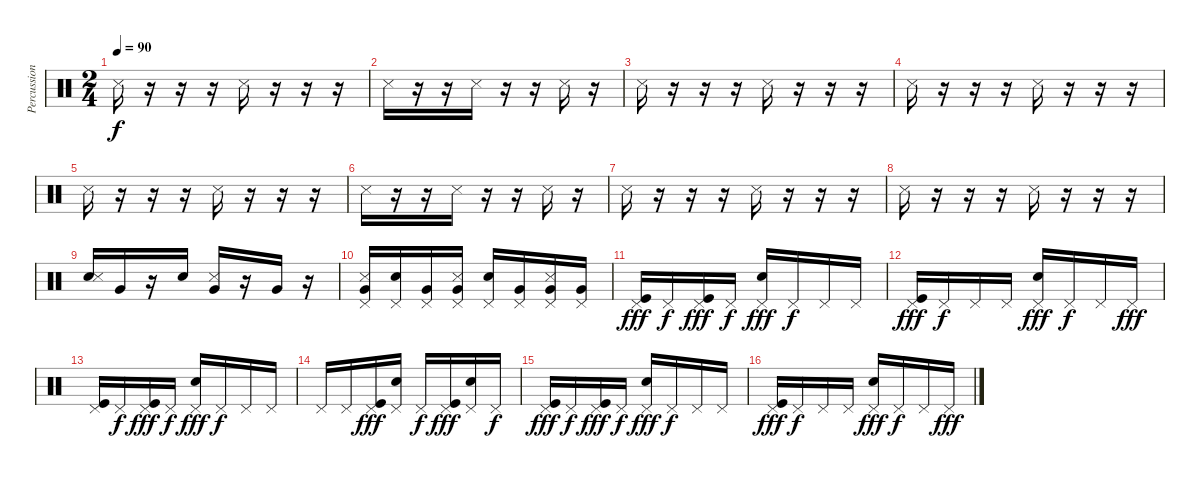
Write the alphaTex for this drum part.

\track ("Percussion" "Percussion") {instrument percussion}
\staff {score}
\articulation defaults
\ts (2 4)
\tempo 90
\clef neutral
\ks c "Snare (side stick) 3".16{dy f}
r.16 r.16 r.16 "Snare (side stick) 3".16 r.16 r.16 r.16 |
"Snare (side stick) 3".16 r.16 r.16 "Snare (side stick) 3".16 r.16 r.16 "Snare (side stick) 3".16 r.16 |
"Snare (side stick) 3".16 r.16 r.16 r.16 "Snare (side stick) 3".16 r.16 r.16 r.16 |
"Snare (side stick) 3".16 r.16 r.16 r.16 "Snare (side stick) 3".16 r.16 r.16 r.16 |
"Snare (side stick) 3".16 r.16 r.16 r.16 "Snare (side stick) 3".16 r.16 r.16 r.16 |
"Snare (side stick) 3".16 r.16 r.16 "Snare (side stick) 3".16 r.16 r.16 "Snare (side stick) 3".16 r.16 |
"Snare (side stick) 3".16 r.16 r.16 r.16 "Snare (side stick) 3".16 r.16 r.16 r.16 |
"Snare (side stick) 3".16 r.16 r.16 r.16 "Snare (side stick) 3".16 r.16 r.16 r.16 |
("Electric Snare (hit)" "Snare (side stick) 3").16 "Very Low Tom (hit)".16 r.16 "Electric Snare (hit)".16 ("Very Low Tom (hit)" "Snare (side stick) 3").16 r.16 "Very Low Tom (hit)".16 r.16 |
("Very Low Tom (hit)" "Snare (side stick) 3" "Pedal Hi-Hat (hit)").16 ("Electric Snare (hit)" "Pedal Hi-Hat (hit)").16 ("Very Low Tom (hit)" "Pedal Hi-Hat (hit)").16 ("Very Low Tom (hit)" "Snare (side stick) 3" "Pedal Hi-Hat (hit)").16 ("Electric Snare (hit)" "Pedal Hi-Hat (hit)").16 ("Very Low Tom (hit)" "Pedal Hi-Hat (hit)").16 ("Very Low Tom (hit)" "Snare (side stick) 3" "Pedal Hi-Hat (hit)").16 ("Very Low Tom (hit)" "Pedal Hi-Hat (hit)").16 |
("Kick (hit)" "Pedal Hi-Hat (hit)").16{dy fff} "Pedal Hi-Hat (hit)".16{dy f} ("Kick (hit)" "Pedal Hi-Hat (hit)").16{dy fff} "Pedal Hi-Hat (hit)".16{dy f} ("Electric Snare (hit)" "Pedal Hi-Hat (hit)").16{dy fff} "Pedal Hi-Hat (hit)".16{dy f} "Pedal Hi-Hat (hit)".16 "Pedal Hi-Hat (hit)".16 |
("Kick (hit)" "Pedal Hi-Hat (hit)").16{dy fff} "Pedal Hi-Hat (hit)".16{dy f} "Pedal Hi-Hat (hit)".16 "Pedal Hi-Hat (hit)".16 ("Electric Snare (hit)" "Pedal Hi-Hat (hit)").16{dy fff} "Pedal Hi-Hat (hit)".16{dy f} "Pedal Hi-Hat (hit)".16 "Pedal Hi-Hat (hit)".16{dy fff} |
("Kick (hit)" "Pedal Hi-Hat (hit)").16 "Pedal Hi-Hat (hit)".16{dy f} ("Kick (hit)" "Pedal Hi-Hat (hit)").16{dy fff} "Pedal Hi-Hat (hit)".16{dy f} ("Electric Snare (hit)" "Pedal Hi-Hat (hit)").16{dy fff} "Pedal Hi-Hat (hit)".16{dy f} "Pedal Hi-Hat (hit)".16 "Pedal Hi-Hat (hit)".16 |
"Pedal Hi-Hat (hit)".16 "Pedal Hi-Hat (hit)".16 ("Kick (hit)" "Pedal Hi-Hat (hit)").16{dy fff} ("Electric Snare (hit)" "Pedal Hi-Hat (hit)").16 "Pedal Hi-Hat (hit)".16{dy f} ("Kick (hit)" "Pedal Hi-Hat (hit)").16{dy fff} ("Electric Snare (hit)" "Pedal Hi-Hat (hit)").16 "Pedal Hi-Hat (hit)".16{dy f} |
("Kick (hit)" "Pedal Hi-Hat (hit)").16{dy fff} "Pedal Hi-Hat (hit)".16{dy f} ("Kick (hit)" "Pedal Hi-Hat (hit)").16{dy fff} "Pedal Hi-Hat (hit)".16{dy f} ("Electric Snare (hit)" "Pedal Hi-Hat (hit)").16{dy fff} "Pedal Hi-Hat (hit)".16{dy f} "Pedal Hi-Hat (hit)".16 "Pedal Hi-Hat (hit)".16 |
("Kick (hit)" "Pedal Hi-Hat (hit)").16{dy fff} "Pedal Hi-Hat (hit)".16{dy f} "Pedal Hi-Hat (hit)".16 "Pedal Hi-Hat (hit)".16 ("Electric Snare (hit)" "Pedal Hi-Hat (hit)").16{dy fff} "Pedal Hi-Hat (hit)".16{dy f} "Pedal Hi-Hat (hit)".16 "Pedal Hi-Hat (hit)".16{dy fff}
